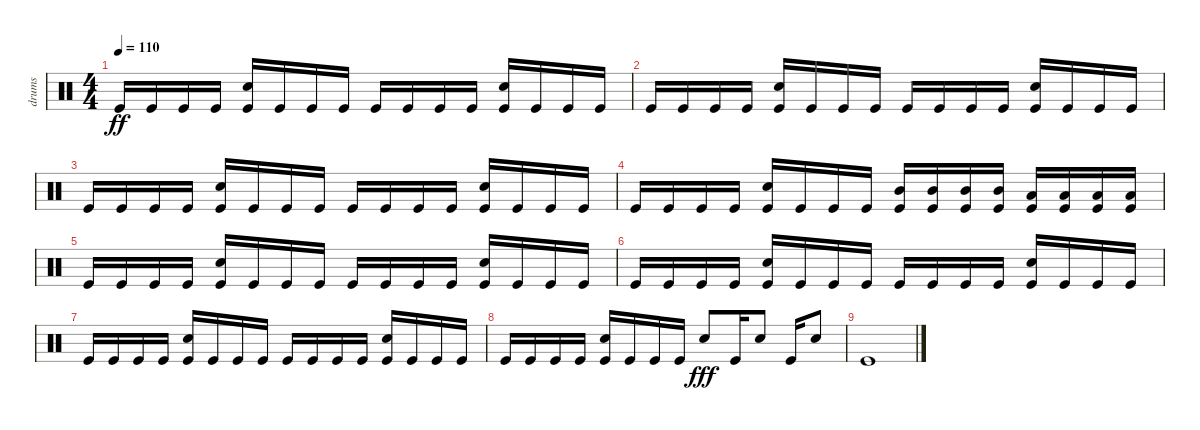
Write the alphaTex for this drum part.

\track ("drums" "drums") {instrument percussion}
\staff {score}
\articulation defaults
\ts (4 4)
\tempo 110
\clef neutral
\ks c "Kick (hit)".16{dy ff} "Kick (hit)".16 "Kick (hit)".16 "Kick (hit)".16
("Electric Snare (hit)" "Kick (hit)").16 "Kick (hit)".16 "Kick (hit)".16 "Kick (hit)".16 "Kick (hit)".16 "Kick (hit)".16 "Kick (hit)".16 "Kick (hit)".16 ("Electric Snare (hit)" "Kick (hit)").16 "Kick (hit)".16 "Kick (hit)".16 "Kick (hit)".16 |
"Kick (hit)".16 "Kick (hit)".16 "Kick (hit)".16 "Kick (hit)".16 ("Electric Snare (hit)" "Kick (hit)").16 "Kick (hit)".16 "Kick (hit)".16 "Kick (hit)".16 "Kick (hit)".16 "Kick (hit)".16 "Kick (hit)".16 "Kick (hit)".16 ("Electric Snare (hit)" "Kick (hit)").16 "Kick (hit)".16 "Kick (hit)".16 "Kick (hit)".16 |
"Kick (hit)".16 "Kick (hit)".16 "Kick (hit)".16 "Kick (hit)".16 ("Electric Snare (hit)" "Kick (hit)").16 "Kick (hit)".16 "Kick (hit)".16 "Kick (hit)".16 "Kick (hit)".16 "Kick (hit)".16 "Kick (hit)".16 "Kick (hit)".16 ("Electric Snare (hit)" "Kick (hit)").16 "Kick (hit)".16 "Kick (hit)".16 "Kick (hit)".16 |
"Kick (hit)".16 "Kick (hit)".16 "Kick (hit)".16 "Kick (hit)".16 ("Electric Snare (hit)" "Kick (hit)").16 "Kick (hit)".16 "Kick (hit)".16 "Kick (hit)".16 ("Mid Tom (hit)" "Kick (hit)").16 ("Mid Tom (hit)" "Kick (hit)").16 ("Mid Tom (hit)" "Kick (hit)").16 ("Mid Tom (hit)" "Kick (hit)").16 ("Low Tom (hit)" "Kick (hit)").16 ("Low Tom (hit)" "Kick (hit)").16 ("Low Tom (hit)" "Kick (hit)").16 ("Low Tom (hit)" "Kick (hit)").16 |
"Kick (hit)".16 "Kick (hit)".16 "Kick (hit)".16 "Kick (hit)".16 ("Electric Snare (hit)" "Kick (hit)").16 "Kick (hit)".16 "Kick (hit)".16 "Kick (hit)".16 "Kick (hit)".16 "Kick (hit)".16 "Kick (hit)".16 "Kick (hit)".16 ("Electric Snare (hit)" "Kick (hit)").16 "Kick (hit)".16 "Kick (hit)".16 "Kick (hit)".16 |
"Kick (hit)".16 "Kick (hit)".16 "Kick (hit)".16 "Kick (hit)".16 ("Electric Snare (hit)" "Kick (hit)").16 "Kick (hit)".16 "Kick (hit)".16 "Kick (hit)".16 "Kick (hit)".16 "Kick (hit)".16 "Kick (hit)".16 "Kick (hit)".16 ("Electric Snare (hit)" "Kick (hit)").16 "Kick (hit)".16 "Kick (hit)".16 "Kick (hit)".16 |
"Kick (hit)".16 "Kick (hit)".16 "Kick (hit)".16 "Kick (hit)".16 ("Electric Snare (hit)" "Kick (hit)").16 "Kick (hit)".16 "Kick (hit)".16 "Kick (hit)".16 "Kick (hit)".16 "Kick (hit)".16 "Kick (hit)".16 "Kick (hit)".16 ("Electric Snare (hit)" "Kick (hit)").16 "Kick (hit)".16 "Kick (hit)".16 "Kick (hit)".16 |
"Kick (hit)".16 "Kick (hit)".16 "Kick (hit)".16 "Kick (hit)".16 ("Electric Snare (hit)" "Kick (hit)").16 "Kick (hit)".16 "Kick (hit)".16 "Kick (hit)".16 "Electric Snare (hit)".8{dy fff} "Kick (hit)".16 "Electric Snare (hit)".8 "Kick (hit)".16 "Electric Snare (hit)".8 |
"Kick (hit)".1
